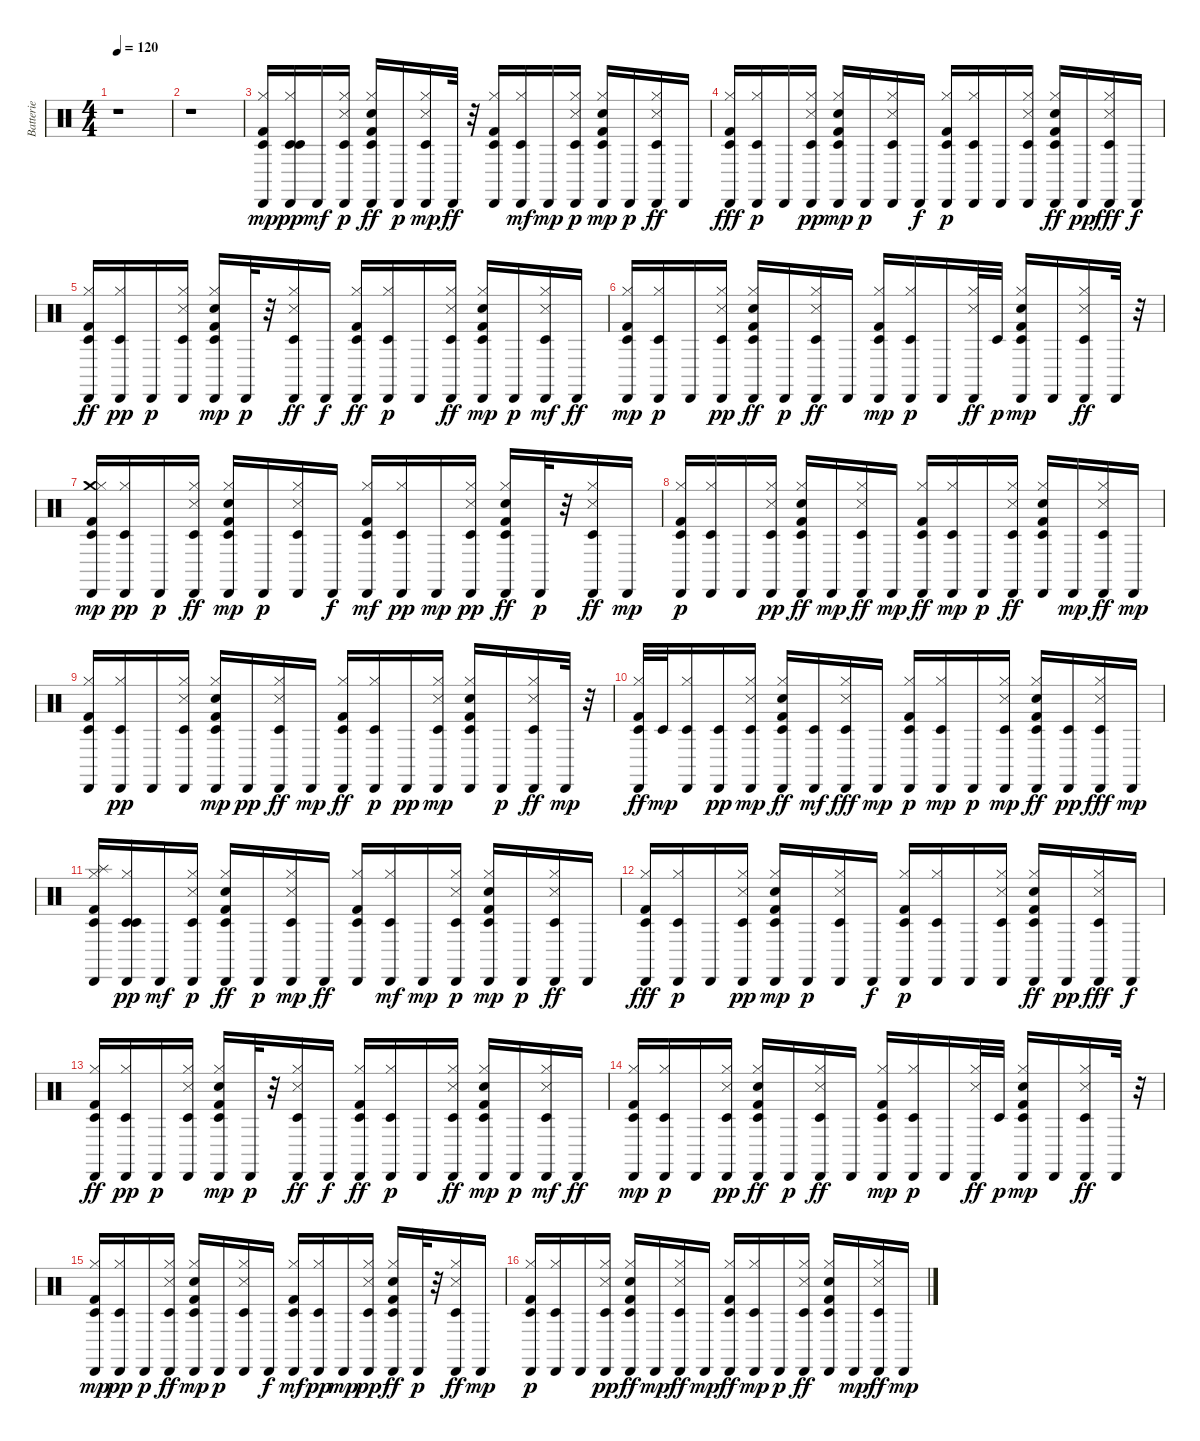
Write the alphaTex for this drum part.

\track ("Batterie" "Batterie") {instrument percussion}
\staff {score}
\articulation defaults
\ts (4 4)
\tempo 120
\clef neutral
\ks c
r.1{dy mp} |
r.1 |
("Hi-Hat (closed)" "Kick (hit) 2" "Cabasa (hit)" "Timbale low (hit)").16 ("Hi-Hat (closed)" "Cabasa (hit)" "Timbale low (hit)" "Timbale low (hit)").16{dy pp} "Cabasa (hit)".16{dy mf} ("Cabasa (hit)" "Snare (side stick) 3" "Hi-Hat (closed)" "Timbale low (hit)").16{dy p} ("Timbale low (hit)" "Hand Clap (hit)" "Hi-Hat (closed)" "Cabasa (hit)" "Kick (hit) 2").16{dy ff} "Cabasa (hit)".16{dy p} ("Timbale low (hit)" "Cabasa (hit)" "Snare (side stick) 3" "Hi-Hat (closed)").16{dy mp} "Cabasa (hit)".32{dy ff} r.32 ("Timbale low (hit)" "Cabasa (hit)" "Kick (hit) 2" "Hi-Hat (closed)").16 ("Timbale low (hit)" "Cabasa (hit)" "Hi-Hat (closed)").16{dy mf} "Cabasa (hit)".16{dy mp} ("Snare (side stick) 3" "Cabasa (hit)" "Timbale low (hit)" "Hi-Hat (closed)").16{dy p} ("Timbale low (hit)" "Cabasa (hit)" "Hand Clap (hit)" "Kick (hit) 2" "Hi-Hat (closed)").16{dy mp} "Cabasa (hit)".16{dy p} ("Cabasa (hit)" "Snare (side stick) 3" "Timbale low (hit)" "Hi-Hat (closed)").16{dy ff} "Cabasa (hit)".16 |
("Cabasa (hit)" "Kick (hit) 2" "Timbale low (hit)" "Hi-Hat (closed)").16{dy fff} ("Hi-Hat (closed)" "Cabasa (hit)" "Timbale low (hit)").16{dy p} "Cabasa (hit)".16 ("Cabasa (hit)" "Snare (side stick) 3" "Hi-Hat (closed)" "Timbale low (hit)").16{dy pp} ("Kick (hit) 2" "Hi-Hat (closed)" "Cabasa (hit)" "Hand Clap (hit)" "Timbale low (hit)").16{dy mp} "Cabasa (hit)".16{dy p} ("Hi-Hat (closed)" "Cabasa (hit)" "Snare (side stick) 3" "Timbale low (hit)").16 "Cabasa (hit)".16{dy f} ("Kick (hit) 2" "Timbale low (hit)" "Hi-Hat (closed)" "Cabasa (hit)").16{dy p} ("Hi-Hat (closed)" "Cabasa (hit)" "Timbale low (hit)").16 "Cabasa (hit)".16 ("Cabasa (hit)" "Hi-Hat (closed)" "Snare (side stick) 3" "Timbale low (hit)").16 ("Timbale low (hit)" "Hi-Hat (closed)" "Cabasa (hit)" "Kick (hit) 2" "Hand Clap (hit)").16{dy ff} "Cabasa (hit)".16{dy pp} ("Timbale low (hit)" "Cabasa (hit)" "Hi-Hat (closed)" "Snare (side stick) 3").16{dy fff} "Cabasa (hit)".16{dy f} |
("Kick (hit) 2" "Timbale low (hit)" "Cabasa (hit)" "Hi-Hat (closed)").16{dy ff} ("Hi-Hat (closed)" "Timbale low (hit)" "Cabasa (hit)").16{dy pp} "Cabasa (hit)".16{dy p} ("Cabasa (hit)" "Snare (side stick) 3" "Timbale low (hit)" "Hi-Hat (closed)").16 ("Timbale low (hit)" "Kick (hit) 2" "Hi-Hat (closed)" "Cabasa (hit)" "Hand Clap (hit)").16{dy mp} "Cabasa (hit)".32{dy p} r.32 ("Cabasa (hit)" "Timbale low (hit)" "Snare (side stick) 3" "Hi-Hat (closed)").16{dy ff} "Cabasa (hit)".16{dy f} ("Timbale low (hit)" "Kick (hit) 2" "Cabasa (hit)" "Hi-Hat (closed)").16{dy ff} ("Timbale low (hit)" "Hi-Hat (closed)" "Cabasa (hit)").16{dy p} "Cabasa (hit)".16 ("Timbale low (hit)" "Cabasa (hit)" "Snare (side stick) 3" "Hi-Hat (closed)").16{dy ff} ("Timbale low (hit)" "Hi-Hat (closed)" "Kick (hit) 2" "Hand Clap (hit)" "Cabasa (hit)").16{dy mp} "Cabasa (hit)".16{dy p} ("Cabasa (hit)" "Timbale low (hit)" "Snare (side stick) 3" "Hi-Hat (closed)").16{dy mf} "Cabasa (hit)".16{dy ff} |
("Cabasa (hit)" "Kick (hit) 2" "Timbale low (hit)" "Hi-Hat (closed)").16{dy mp} ("Hi-Hat (closed)" "Timbale low (hit)" "Cabasa (hit)").16{dy p} "Cabasa (hit)".16 ("Cabasa (hit)" "Snare (side stick) 3" "Hi-Hat (closed)" "Timbale low (hit)").16{dy pp} ("Hi-Hat (closed)" "Timbale low (hit)" "Cabasa (hit)" "Kick (hit) 2" "Hand Clap (hit)").16{dy ff} "Cabasa (hit)".16{dy p} ("Cabasa (hit)" "Timbale low (hit)" "Snare (side stick) 3" "Hi-Hat (closed)").16{dy ff} "Cabasa (hit)".16 ("Kick (hit) 2" "Cabasa (hit)" "Timbale low (hit)" "Hi-Hat (closed)").16{dy mp} ("Cabasa (hit)" "Hi-Hat (closed)" "Timbale low (hit)").16{dy p} "Cabasa (hit)".16 ("Cabasa (hit)" "Snare (side stick) 3" "Hi-Hat (closed)").32{dy ff} "Timbale low (hit)".32{dy p} ("Cabasa (hit)" "Kick (hit) 2" "Timbale low (hit)" "Hi-Hat (closed)" "Hand Clap (hit)").16{dy mp} "Cabasa (hit)".16 ("Cabasa (hit)" "Hi-Hat (closed)" "Snare (side stick) 3" "Timbale low (hit)").16{dy ff} "Cabasa (hit)".32 r.32 |
("Crash medium (hit)" "Kick (hit) 2" "Cabasa (hit)" "Hi-Hat (closed)" "Timbale low (hit)").16{dy mp} ("Hi-Hat (closed)" "Cabasa (hit)" "Timbale low (hit)").16{dy pp} "Cabasa (hit)".16{dy p} ("Cabasa (hit)" "Snare (side stick) 3" "Timbale low (hit)" "Hi-Hat (closed)").16{dy ff} ("Kick (hit) 2" "Timbale low (hit)" "Hi-Hat (closed)" "Cabasa (hit)" "Hand Clap (hit)").16{dy mp} "Cabasa (hit)".16{dy p} ("Snare (side stick) 3" "Cabasa (hit)" "Hi-Hat (closed)" "Timbale low (hit)").16 "Cabasa (hit)".16{dy f} ("Kick (hit) 2" "Timbale low (hit)" "Cabasa (hit)" "Hi-Hat (closed)").16{dy mf} ("Hi-Hat (closed)" "Timbale low (hit)" "Cabasa (hit)").16{dy pp} "Cabasa (hit)".16{dy mp} ("Cabasa (hit)" "Snare (side stick) 3" "Hi-Hat (closed)" "Timbale low (hit)").16{dy pp} ("Timbale low (hit)" "Hi-Hat (closed)" "Kick (hit) 2" "Cabasa (hit)" "Hand Clap (hit)").16{dy ff} "Cabasa (hit)".32{dy p} r.32 ("Hi-Hat (closed)" "Cabasa (hit)" "Timbale low (hit)" "Snare (side stick) 3").16{dy ff} "Cabasa (hit)".16{dy mp} |
("Kick (hit) 2" "Cabasa (hit)" "Hi-Hat (closed)" "Timbale low (hit)").16{dy p} ("Hi-Hat (closed)" "Timbale low (hit)" "Cabasa (hit)").16 "Cabasa (hit)".16 ("Cabasa (hit)" "Snare (side stick) 3" "Hi-Hat (closed)" "Timbale low (hit)").16{dy pp} ("Timbale low (hit)" "Hi-Hat (closed)" "Cabasa (hit)" "Kick (hit) 2" "Hand Clap (hit)").16{dy ff} "Cabasa (hit)".16{dy mp} ("Timbale low (hit)" "Cabasa (hit)" "Snare (side stick) 3" "Hi-Hat (closed)").16{dy ff} "Cabasa (hit)".16{dy mp} ("Timbale low (hit)" "Cabasa (hit)" "Kick (hit) 2" "Hi-Hat (closed)").16{dy ff} ("Timbale low (hit)" "Hi-Hat (closed)" "Cabasa (hit)").16{dy mp} "Cabasa (hit)".16{dy p} ("Cabasa (hit)" "Snare (side stick) 3" "Timbale low (hit)" "Hi-Hat (closed)").16{dy ff} ("Timbale low (hit)" "Hi-Hat (closed)" "Kick (hit) 2" "Cabasa (hit)" "Hand Clap (hit)").16 "Cabasa (hit)".16{dy mp} ("Cabasa (hit)" "Timbale low (hit)" "Hi-Hat (closed)" "Snare (side stick) 3").16{dy ff} "Cabasa (hit)".16{dy mp} |
("Kick (hit) 2" "Cabasa (hit)" "Hi-Hat (closed)" "Timbale low (hit)").16 ("Hi-Hat (closed)" "Timbale low (hit)" "Cabasa (hit)").16{dy pp} "Cabasa (hit)".16 ("Snare (side stick) 3" "Cabasa (hit)" "Hi-Hat (closed)" "Timbale low (hit)").16 ("Timbale low (hit)" "Kick (hit) 2" "Hi-Hat (closed)" "Cabasa (hit)" "Hand Clap (hit)").16{dy mp} "Cabasa (hit)".16{dy pp} ("Cabasa (hit)" "Timbale low (hit)" "Snare (side stick) 3" "Hi-Hat (closed)").16{dy ff} "Cabasa (hit)".16{dy mp} ("Timbale low (hit)" "Kick (hit) 2" "Cabasa (hit)" "Hi-Hat (closed)").16{dy ff} ("Hi-Hat (closed)" "Timbale low (hit)" "Cabasa (hit)").16{dy p} "Cabasa (hit)".16{dy pp} ("Snare (side stick) 3" "Timbale low (hit)" "Cabasa (hit)" "Hi-Hat (closed)").16{dy mp} ("Timbale low (hit)" "Kick (hit) 2" "Hand Clap (hit)" "Cabasa (hit)" "Hi-Hat (closed)").16 "Cabasa (hit)".16{dy p} ("Cabasa (hit)" "Hi-Hat (closed)" "Snare (side stick) 3" "Timbale low (hit)").16{dy ff} "Cabasa (hit)".32{dy mp} r.32 |
("Kick (hit) 2" "Cabasa (hit)" "Timbale low (hit)" "Hi-Hat (closed)").32{dy ff} "Timbale low (hit)".32{dy mp} ("Hi-Hat (closed)" "Cabasa (hit)" "Timbale low (hit)").16 ("Timbale low (hit)" "Cabasa (hit)").16{dy pp} ("Cabasa (hit)" "Snare (side stick) 3" "Hi-Hat (closed)" "Timbale low (hit)").16{dy mp} ("Timbale low (hit)" "Hi-Hat (closed)" "Kick (hit) 2" "Cabasa (hit)" "Hand Clap (hit)").16{dy ff} ("Cabasa (hit)" "Timbale low (hit)").16{dy mf} ("Cabasa (hit)" "Hi-Hat (closed)" "Timbale low (hit)" "Snare (side stick) 3").16{dy fff} "Cabasa (hit)".16{dy mp} ("Kick (hit) 2" "Cabasa (hit)" "Hi-Hat (closed)" "Timbale low (hit)").16{dy p} ("Hi-Hat (closed)" "Cabasa (hit)" "Timbale low (hit)").16{dy mp} "Cabasa (hit)".16{dy p} ("Hi-Hat (closed)" "Cabasa (hit)" "Timbale low (hit)" "Snare (side stick) 3").16{dy mp} ("Hi-Hat (closed)" "Timbale low (hit)" "Kick (hit) 2" "Cabasa (hit)" "Hand Clap (hit)").16{dy ff} ("Timbale low (hit)" "Cabasa (hit)").16{dy pp} ("Cabasa (hit)" "Hi-Hat (closed)" "Snare (side stick) 3" "Timbale low (hit)").16{dy fff} "Cabasa (hit)".16{dy mp} |
("Hi-Hat (closed)" "Splash (hit)" "Kick (hit) 2" "Cabasa (hit)" "Timbale low (hit)").16 ("Hi-Hat (closed)" "Cabasa (hit)" "Timbale low (hit)" "Timbale low (hit)").16{dy pp} "Cabasa (hit)".16{dy mf} ("Cabasa (hit)" "Snare (side stick) 3" "Hi-Hat (closed)" "Timbale low (hit)").16{dy p} ("Timbale low (hit)" "Hand Clap (hit)" "Hi-Hat (closed)" "Cabasa (hit)" "Kick (hit) 2").16{dy ff} "Cabasa (hit)".16{dy p} ("Timbale low (hit)" "Cabasa (hit)" "Snare (side stick) 3" "Hi-Hat (closed)").16{dy mp} "Cabasa (hit)".16{dy ff} ("Timbale low (hit)" "Cabasa (hit)" "Kick (hit) 2" "Hi-Hat (closed)").16 ("Timbale low (hit)" "Cabasa (hit)" "Hi-Hat (closed)").16{dy mf} "Cabasa (hit)".16{dy mp} ("Snare (side stick) 3" "Cabasa (hit)" "Timbale low (hit)" "Hi-Hat (closed)").16{dy p} ("Timbale low (hit)" "Cabasa (hit)" "Hand Clap (hit)" "Kick (hit) 2" "Hi-Hat (closed)").16{dy mp} "Cabasa (hit)".16{dy p} ("Cabasa (hit)" "Snare (side stick) 3" "Timbale low (hit)" "Hi-Hat (closed)").16{dy ff} "Cabasa (hit)".16 |
("Cabasa (hit)" "Kick (hit) 2" "Timbale low (hit)" "Hi-Hat (closed)").16{dy fff} ("Hi-Hat (closed)" "Cabasa (hit)" "Timbale low (hit)").16{dy p} "Cabasa (hit)".16 ("Cabasa (hit)" "Snare (side stick) 3" "Hi-Hat (closed)" "Timbale low (hit)").16{dy pp} ("Kick (hit) 2" "Hi-Hat (closed)" "Cabasa (hit)" "Hand Clap (hit)" "Timbale low (hit)").16{dy mp} "Cabasa (hit)".16{dy p} ("Hi-Hat (closed)" "Cabasa (hit)" "Snare (side stick) 3" "Timbale low (hit)").16 "Cabasa (hit)".16{dy f} ("Kick (hit) 2" "Timbale low (hit)" "Hi-Hat (closed)" "Cabasa (hit)").16{dy p} ("Hi-Hat (closed)" "Cabasa (hit)" "Timbale low (hit)").16 "Cabasa (hit)".16 ("Cabasa (hit)" "Hi-Hat (closed)" "Snare (side stick) 3" "Timbale low (hit)").16 ("Timbale low (hit)" "Hi-Hat (closed)" "Cabasa (hit)" "Kick (hit) 2" "Hand Clap (hit)").16{dy ff} "Cabasa (hit)".16{dy pp} ("Timbale low (hit)" "Cabasa (hit)" "Hi-Hat (closed)" "Snare (side stick) 3").16{dy fff} "Cabasa (hit)".16{dy f} |
("Kick (hit) 2" "Timbale low (hit)" "Cabasa (hit)" "Hi-Hat (closed)").16{dy ff} ("Hi-Hat (closed)" "Timbale low (hit)" "Cabasa (hit)").16{dy pp} "Cabasa (hit)".16{dy p} ("Cabasa (hit)" "Snare (side stick) 3" "Timbale low (hit)" "Hi-Hat (closed)").16 ("Timbale low (hit)" "Kick (hit) 2" "Hi-Hat (closed)" "Cabasa (hit)" "Hand Clap (hit)").16{dy mp} "Cabasa (hit)".32{dy p} r.32 ("Cabasa (hit)" "Timbale low (hit)" "Snare (side stick) 3" "Hi-Hat (closed)").16{dy ff} "Cabasa (hit)".16{dy f} ("Timbale low (hit)" "Kick (hit) 2" "Cabasa (hit)" "Hi-Hat (closed)").16{dy ff} ("Timbale low (hit)" "Hi-Hat (closed)" "Cabasa (hit)").16{dy p} "Cabasa (hit)".16 ("Timbale low (hit)" "Cabasa (hit)" "Snare (side stick) 3" "Hi-Hat (closed)").16{dy ff} ("Timbale low (hit)" "Hi-Hat (closed)" "Kick (hit) 2" "Hand Clap (hit)" "Cabasa (hit)").16{dy mp} "Cabasa (hit)".16{dy p} ("Cabasa (hit)" "Timbale low (hit)" "Snare (side stick) 3" "Hi-Hat (closed)").16{dy mf} "Cabasa (hit)".16{dy ff} |
("Cabasa (hit)" "Kick (hit) 2" "Timbale low (hit)" "Hi-Hat (closed)").16{dy mp} ("Hi-Hat (closed)" "Timbale low (hit)" "Cabasa (hit)").16{dy p} "Cabasa (hit)".16 ("Cabasa (hit)" "Snare (side stick) 3" "Hi-Hat (closed)" "Timbale low (hit)").16{dy pp} ("Hi-Hat (closed)" "Timbale low (hit)" "Cabasa (hit)" "Kick (hit) 2" "Hand Clap (hit)").16{dy ff} "Cabasa (hit)".16{dy p} ("Cabasa (hit)" "Timbale low (hit)" "Snare (side stick) 3" "Hi-Hat (closed)").16{dy ff} "Cabasa (hit)".16 ("Kick (hit) 2" "Cabasa (hit)" "Timbale low (hit)" "Hi-Hat (closed)").16{dy mp} ("Cabasa (hit)" "Hi-Hat (closed)" "Timbale low (hit)").16{dy p} "Cabasa (hit)".16 ("Cabasa (hit)" "Snare (side stick) 3" "Hi-Hat (closed)").32{dy ff} "Timbale low (hit)".32{dy p} ("Cabasa (hit)" "Kick (hit) 2" "Timbale low (hit)" "Hi-Hat (closed)" "Hand Clap (hit)").16{dy mp} "Cabasa (hit)".16 ("Cabasa (hit)" "Hi-Hat (closed)" "Snare (side stick) 3" "Timbale low (hit)").16{dy ff} "Cabasa (hit)".32 r.32 |
("Kick (hit) 2" "Cabasa (hit)" "Hi-Hat (closed)" "Timbale low (hit)").16{dy mp} ("Hi-Hat (closed)" "Cabasa (hit)" "Timbale low (hit)").16{dy pp} "Cabasa (hit)".16{dy p} ("Cabasa (hit)" "Snare (side stick) 3" "Timbale low (hit)" "Hi-Hat (closed)").16{dy ff} ("Kick (hit) 2" "Timbale low (hit)" "Hi-Hat (closed)" "Cabasa (hit)" "Hand Clap (hit)").16{dy mp} "Cabasa (hit)".16{dy p} ("Snare (side stick) 3" "Cabasa (hit)" "Hi-Hat (closed)" "Timbale low (hit)").16 "Cabasa (hit)".16{dy f} ("Kick (hit) 2" "Timbale low (hit)" "Cabasa (hit)" "Hi-Hat (closed)").16{dy mf} ("Hi-Hat (closed)" "Timbale low (hit)" "Cabasa (hit)").16{dy pp} "Cabasa (hit)".16{dy mp} ("Cabasa (hit)" "Snare (side stick) 3" "Hi-Hat (closed)" "Timbale low (hit)").16{dy pp} ("Timbale low (hit)" "Hi-Hat (closed)" "Kick (hit) 2" "Cabasa (hit)" "Hand Clap (hit)").16{dy ff} "Cabasa (hit)".32{dy p} r.32 ("Hi-Hat (closed)" "Cabasa (hit)" "Timbale low (hit)" "Snare (side stick) 3").16{dy ff} "Cabasa (hit)".16{dy mp} |
("Kick (hit) 2" "Cabasa (hit)" "Hi-Hat (closed)" "Timbale low (hit)").16{dy p} ("Hi-Hat (closed)" "Timbale low (hit)" "Cabasa (hit)").16 "Cabasa (hit)".16 ("Cabasa (hit)" "Snare (side stick) 3" "Hi-Hat (closed)" "Timbale low (hit)").16{dy pp} ("Timbale low (hit)" "Hi-Hat (closed)" "Cabasa (hit)" "Kick (hit) 2" "Hand Clap (hit)").16{dy ff} "Cabasa (hit)".16{dy mp} ("Timbale low (hit)" "Cabasa (hit)" "Snare (side stick) 3" "Hi-Hat (closed)").16{dy ff} "Cabasa (hit)".16{dy mp} ("Timbale low (hit)" "Cabasa (hit)" "Kick (hit) 2" "Hi-Hat (closed)").16{dy ff} ("Timbale low (hit)" "Hi-Hat (closed)" "Cabasa (hit)").16{dy mp} "Cabasa (hit)".16{dy p} ("Cabasa (hit)" "Snare (side stick) 3" "Timbale low (hit)" "Hi-Hat (closed)").16{dy ff} ("Timbale low (hit)" "Hi-Hat (closed)" "Kick (hit) 2" "Cabasa (hit)" "Hand Clap (hit)").16 "Cabasa (hit)".16{dy mp} ("Cabasa (hit)" "Timbale low (hit)" "Hi-Hat (closed)" "Snare (side stick) 3").16{dy ff} "Cabasa (hit)".16{dy mp}
